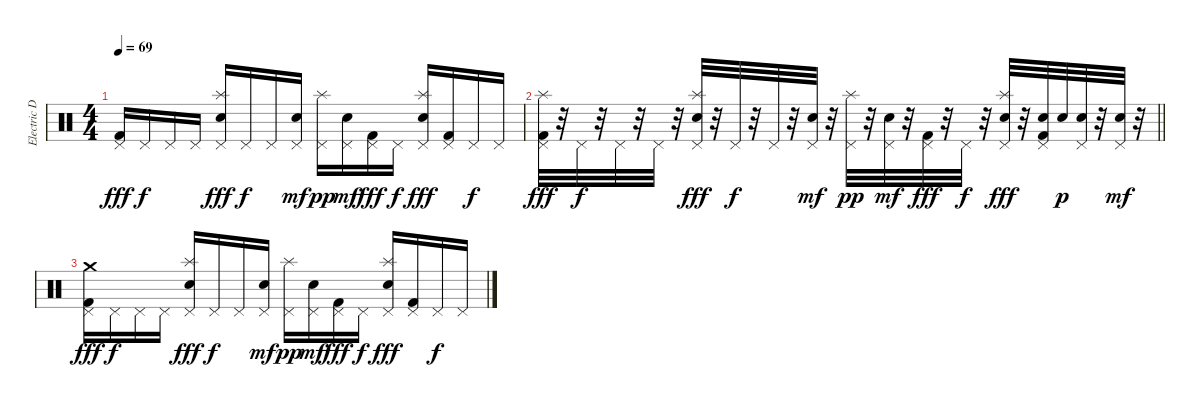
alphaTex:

\track ("Electric Drums" "Electric D") {instrument percussion}
\staff {score}
\articulation defaults
\ts (4 4)
\tempo 69
\clef neutral
\ks aminor
("Pedal Hi-Hat (hit)" "Kick (hit) 2").16{dy fff} "Pedal Hi-Hat (hit)".16{dy f} "Pedal Hi-Hat (hit)".16 "Pedal Hi-Hat (hit)".16 ("Splash (hit)" "Pedal Hi-Hat (hit)" "Hand Clap (hit)").16{dy fff} "Pedal Hi-Hat (hit)".16{dy f} "Pedal Hi-Hat (hit)".16 ("Pedal Hi-Hat (hit)" "Snare (hit) 2").16{dy mf} ("Splash (hit)" "Pedal Hi-Hat (hit)").16{dy pp} ("Pedal Hi-Hat (hit)" "Snare (hit) 2").16{dy mf} ("Pedal Hi-Hat (hit)" "Kick (hit) 2").16{dy fff} "Pedal Hi-Hat (hit)".16{dy f} ("Splash (hit)" "Pedal Hi-Hat (hit)" "Hand Clap (hit)").16{dy fff} ("Pedal Hi-Hat (hit)" "Kick (hit) 2").16 "Pedal Hi-Hat (hit)".16{dy f} "Pedal Hi-Hat (hit)".16 |
\barLineRight lightlight
("Splash (hit)" "Pedal Hi-Hat (hit)" "Kick (hit) 2").32{dy fff} r.32 "Pedal Hi-Hat (hit)".32{dy f} r.32 "Pedal Hi-Hat (hit)".32 r.32 "Pedal Hi-Hat (hit)".32 r.32 ("Splash (hit)" "Pedal Hi-Hat (hit)" "Hand Clap (hit)").32{dy fff} r.32 "Pedal Hi-Hat (hit)".32{dy f} r.32 "Pedal Hi-Hat (hit)".32 r.32 ("Pedal Hi-Hat (hit)" "Snare (hit) 2").32{dy mf} r.32 ("Splash (hit)" "Pedal Hi-Hat (hit)").32{dy pp} r.32 ("Pedal Hi-Hat (hit)" "Snare (hit) 2").32{dy mf} r.32 ("Pedal Hi-Hat (hit)" "Kick (hit) 2").32{dy fff} r.32 "Pedal Hi-Hat (hit)".32{dy f} r.32 ("Splash (hit)" "Pedal Hi-Hat (hit)" "Hand Clap (hit)").32{dy fff} r.32 ("Pedal Hi-Hat (hit)" "Snare (hit) 2" "Kick (hit) 2").32 "Snare (hit) 2".32{dy p} ("Pedal Hi-Hat (hit)" "Snare (hit) 2").32 r.32 ("Pedal Hi-Hat (hit)" "Snare (hit) 2").32{dy mf} r.32 |
("Crash medium (hit)" "Pedal Hi-Hat (hit)" "Kick (hit) 2").16{dy fff} "Pedal Hi-Hat (hit)".16{dy f} "Pedal Hi-Hat (hit)".16 "Pedal Hi-Hat (hit)".16 ("Splash (hit)" "Pedal Hi-Hat (hit)" "Hand Clap (hit)").16{dy fff} "Pedal Hi-Hat (hit)".16{dy f} "Pedal Hi-Hat (hit)".16 ("Pedal Hi-Hat (hit)" "Snare (hit) 2").16{dy mf} ("Splash (hit)" "Pedal Hi-Hat (hit)").16{dy pp} ("Pedal Hi-Hat (hit)" "Snare (hit) 2").16{dy mf} ("Pedal Hi-Hat (hit)" "Kick (hit) 2").16{dy fff} "Pedal Hi-Hat (hit)".16{dy f} ("Splash (hit)" "Pedal Hi-Hat (hit)" "Hand Clap (hit)").16{dy fff} ("Pedal Hi-Hat (hit)" "Kick (hit) 2").16 "Pedal Hi-Hat (hit)".16{dy f} "Pedal Hi-Hat (hit)".16
